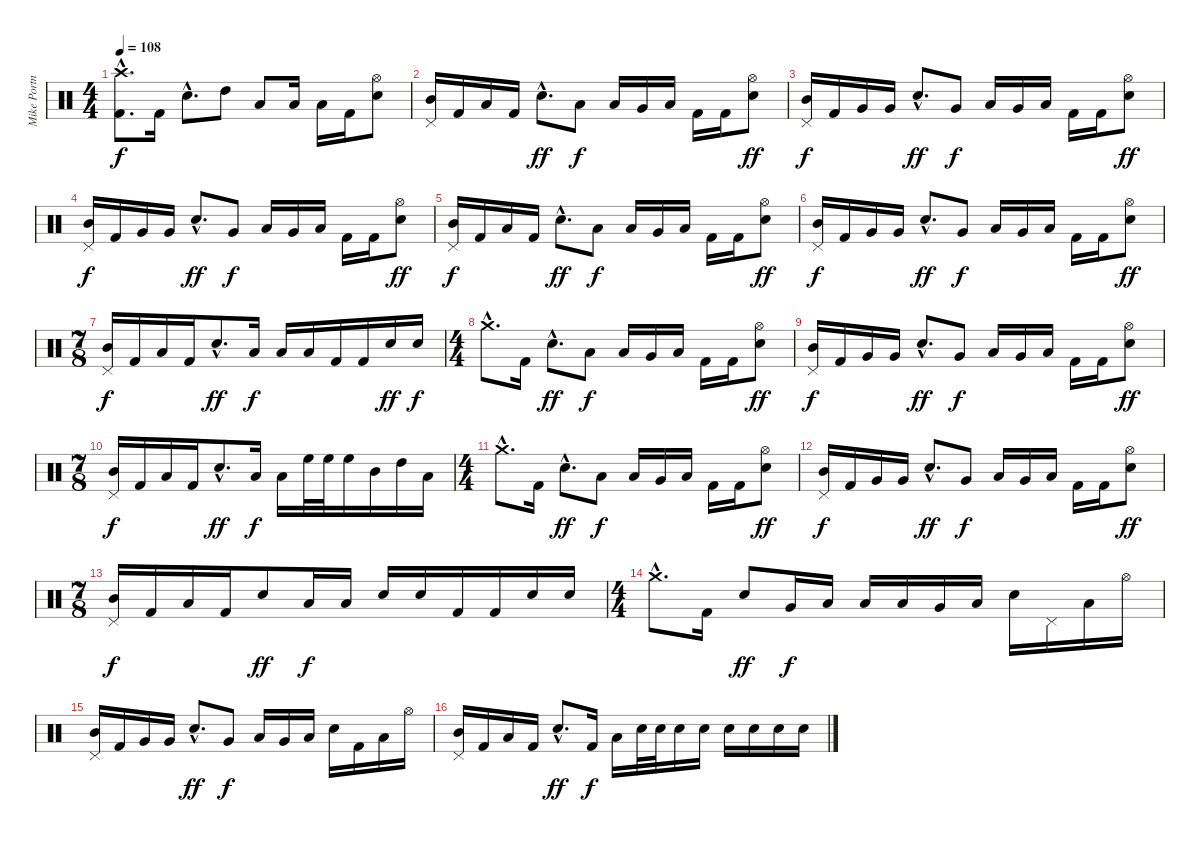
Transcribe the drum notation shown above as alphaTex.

\track ("Mike Portnoy" "Mike Portn") {instrument percussion}
\staff {score}
\articulation defaults
\ts (4 4)
\tempo 108
\clef neutral
\ks c
("Crash high (hit)"{hac} "Kick (hit) 2"{hac}).8{d dy f} "Kick (hit) 2".16 "Snare (hit) 2"{hac}.8{d} "High Tom (hit)".8 "Low Tom (hit)".8 "Low Floor Tom (hit)".16 "Low Floor Tom (hit)".16 "Kick (hit) 2".16 ("Hi-Hat (open)" "Snare (hit) 2").8 |
("Mid Tom (hit)" "Pedal Hi-Hat (hit)").16 "Kick (hit) 2".16 "Low Tom (hit)".16 "Kick (hit) 2".16 "Snare (hit) 2"{hac}.8{d dy ff} "Low Tom (hit)".8{dy f} "Low Floor Tom (hit)".16 "Very Low Tom (hit)".16 "Low Floor Tom (hit)".16 "Kick (hit) 2".16 "Kick (hit) 2".16 ("Hi-Hat (open)" "Snare (hit) 2").8{dy ff} |
("Mid Tom (hit)" "Pedal Hi-Hat (hit)").16{dy f} "Kick (hit) 2".16 "Very Low Tom (hit)".16 "Very Low Tom (hit)".16 "Snare (hit) 2"{hac}.8{d dy ff} "Very Low Tom (hit)".8{dy f} "Low Tom (hit)".16 "Very Low Tom (hit)".16 "Low Floor Tom (hit)".16 "Kick (hit) 2".16 "Kick (hit) 2".16 ("Hi-Hat (open)" "Snare (hit) 2").8{dy ff} |
("Mid Tom (hit)" "Pedal Hi-Hat (hit)").16{dy f} "Kick (hit) 2".16 "Very Low Tom (hit)".16 "Very Low Tom (hit)".16 "Snare (hit) 2"{hac}.8{d dy ff} "Very Low Tom (hit)".8{dy f} "Low Tom (hit)".16 "Very Low Tom (hit)".16 "Low Floor Tom (hit)".16 "Kick (hit) 2".16 "Kick (hit) 2".16 ("Hi-Hat (open)" "Snare (hit) 2").8{dy ff} |
("Mid Tom (hit)" "Pedal Hi-Hat (hit)").16{dy f} "Kick (hit) 2".16 "Low Tom (hit)".16 "Kick (hit) 2".16 "Snare (hit) 2"{hac}.8{d dy ff} "Low Tom (hit)".8{dy f} "Low Floor Tom (hit)".16 "Very Low Tom (hit)".16 "Low Floor Tom (hit)".16 "Kick (hit) 2".16 "Kick (hit) 2".16 ("Hi-Hat (open)" "Snare (hit) 2").8{dy ff} |
("Mid Tom (hit)" "Pedal Hi-Hat (hit)").16{dy f} "Kick (hit) 2".16 "Very Low Tom (hit)".16 "Very Low Tom (hit)".16 "Snare (hit) 2"{hac}.8{d dy ff} "Very Low Tom (hit)".8{dy f} "Low Tom (hit)".16 "Very Low Tom (hit)".16 "Low Floor Tom (hit)".16 "Kick (hit) 2".16 "Kick (hit) 2".16 ("Hi-Hat (open)" "Snare (hit) 2").8{dy ff} |
\ts (7 8)
("Mid Tom (hit)" "Pedal Hi-Hat (hit)").16{dy f} "Kick (hit) 2".16 "Low Tom (hit)".16 "Kick (hit) 2".16 "Snare (hit) 2"{hac}.8{d dy ff} "Low Tom (hit)".16{dy f} "Low Floor Tom (hit)".16 "Low Floor Tom (hit)".16 "Kick (hit) 2".16 "Kick (hit) 2".16 "Snare (hit) 2".16{dy ff} "Snare (hit) 2".16{dy f} |
\ts (4 4)
"Crash medium (hit)"{hac}.8{d} "Kick (hit) 2".16 "Snare (hit) 2"{hac}.8{d dy ff} "Low Tom (hit)".8{dy f} "Low Floor Tom (hit)".16 "Very Low Tom (hit)".16 "Low Floor Tom (hit)".16 "Kick (hit) 2".16 "Kick (hit) 2".16 ("Hi-Hat (open)" "Snare (hit) 2").8{dy ff} |
("Mid Tom (hit)" "Pedal Hi-Hat (hit)").16{dy f} "Kick (hit) 2".16 "Very Low Tom (hit)".16 "Very Low Tom (hit)".16 "Snare (hit) 2"{hac}.8{d dy ff} "Very Low Tom (hit)".8{dy f} "Low Tom (hit)".16 "Very Low Tom (hit)".16 "Low Floor Tom (hit)".16 "Kick (hit) 2".16 "Kick (hit) 2".16 ("Hi-Hat (open)" "Snare (hit) 2").8{dy ff} |
\ts (7 8)
("Mid Tom (hit)" "Pedal Hi-Hat (hit)").16{dy f} "Kick (hit) 2".16 "Low Tom (hit)".16 "Kick (hit) 2".16 "Snare (hit) 2"{hac}.8{d dy ff} "Low Tom (hit)".16{dy f} "Low Floor Tom (hit)".16 "High Floor Tom (hit)".32 "High Floor Tom (hit)".32 "High Floor Tom (hit)".16 "Mid Tom (hit)".16 "High Tom (hit)".16 "Low Tom (hit)".16 |
\ts (4 4)
"Crash medium (hit)"{hac}.8{d} "Kick (hit) 2".16 "Snare (hit) 2"{hac}.8{d dy ff} "Low Tom (hit)".8{dy f} "Low Floor Tom (hit)".16 "Very Low Tom (hit)".16 "Low Floor Tom (hit)".16 "Kick (hit) 2".16 "Kick (hit) 2".16 ("Hi-Hat (open)" "Snare (hit) 2").8{dy ff} |
("Mid Tom (hit)" "Pedal Hi-Hat (hit)").16{dy f} "Kick (hit) 2".16 "Very Low Tom (hit)".16 "Very Low Tom (hit)".16 "Snare (hit) 2"{hac}.8{d dy ff} "Very Low Tom (hit)".8{dy f} "Low Tom (hit)".16 "Very Low Tom (hit)".16 "Low Floor Tom (hit)".16 "Kick (hit) 2".16 "Kick (hit) 2".16 ("Hi-Hat (open)" "Snare (hit) 2").8{dy ff} |
\ts (7 8)
("Mid Tom (hit)" "Pedal Hi-Hat (hit)").16{dy f} "Kick (hit) 2".16 "Low Tom (hit)".16 "Kick (hit) 2".16 "Snare (hit) 2".8{dy ff} "Low Tom (hit)".16{dy f} "Low Floor Tom (hit)".16 "Snare (hit) 2".16 "Snare (hit) 2".16 "Kick (hit) 2".16 "Kick (hit) 2".16 "Snare (hit) 2".16 "Snare (hit) 2".16 |
\ts (4 4)
"Crash medium (hit)"{hac}.8{d} "Kick (hit) 2".16 "Snare (hit) 2".8{dy ff} "Very Low Tom (hit)".16{dy f} "Low Tom (hit)".16 "Low Floor Tom (hit)".16 "Low Floor Tom (hit)".16 "Very Low Tom (hit)".16 "Low Floor Tom (hit)".16 "Snare (hit) 2".16 "Pedal Hi-Hat (hit)".16 "Low Tom (hit)".16 "Hi-Hat (open)".16 |
("Mid Tom (hit)" "Pedal Hi-Hat (hit)").16 "Kick (hit) 2".16 "Very Low Tom (hit)".16 "Very Low Tom (hit)".16 "Snare (hit) 2"{hac}.8{d dy ff} "Very Low Tom (hit)".8{dy f} "Low Tom (hit)".16 "Very Low Tom (hit)".16 "Low Floor Tom (hit)".16 "Snare (hit) 2".16 "Kick (hit) 2".16 "Low Tom (hit)".16 "Hi-Hat (open)".16 |
("Mid Tom (hit)" "Pedal Hi-Hat (hit)").16 "Kick (hit) 2".16 "Low Tom (hit)".16 "Kick (hit) 2".16 "Snare (hit) 2"{hac}.8{d dy ff} "Kick (hit) 2".16{dy f} "Low Tom (hit)".16 "Snare (hit) 2".32 "Snare (hit) 2".32 "Snare (hit) 2".16 "Snare (hit) 2".16 "Snare (hit) 2".16 "Snare (hit) 2".16 "Snare (hit) 2".16 "Snare (hit) 2".16
